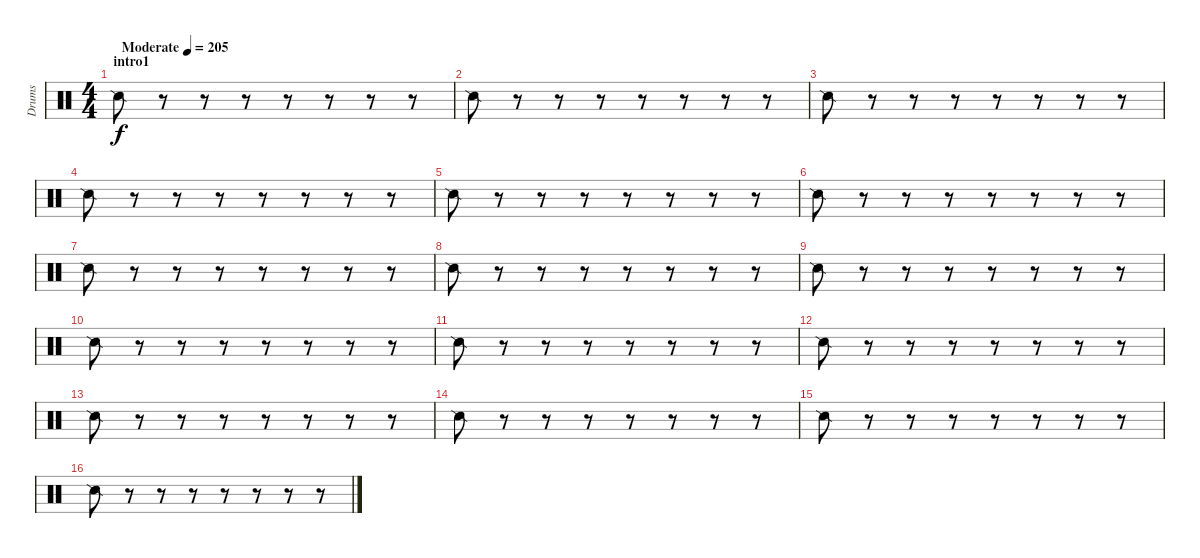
\track ("Drums" "Drums") {instrument percussion}
\staff {score}
\articulation defaults
\ts (4 4)
\section ("" "intro1")
\tempo (205 "Moderate")
\clef neutral
\ks c "Snare (side stick) 2".8{dy f}
r.8 r.8 r.8 r.8 r.8 r.8 r.8 |
"Snare (side stick) 2".8 r.8 r.8 r.8 r.8 r.8 r.8 r.8 |
"Snare (side stick) 2".8 r.8 r.8 r.8 r.8 r.8 r.8 r.8 |
"Snare (side stick) 2".8 r.8 r.8 r.8 r.8 r.8 r.8 r.8 |
"Snare (side stick) 2".8 r.8 r.8 r.8 r.8 r.8 r.8 r.8 |
"Snare (side stick) 2".8 r.8 r.8 r.8 r.8 r.8 r.8 r.8 |
"Snare (side stick) 2".8 r.8 r.8 r.8 r.8 r.8 r.8 r.8 |
"Snare (side stick) 2".8 r.8 r.8 r.8 r.8 r.8 r.8 r.8 |
"Snare (side stick) 2".8 r.8 r.8 r.8 r.8 r.8 r.8 r.8 |
"Snare (side stick) 2".8 r.8 r.8 r.8 r.8 r.8 r.8 r.8 |
"Snare (side stick) 2".8 r.8 r.8 r.8 r.8 r.8 r.8 r.8 |
"Snare (side stick) 2".8 r.8 r.8 r.8 r.8 r.8 r.8 r.8 |
"Snare (side stick) 2".8 r.8 r.8 r.8 r.8 r.8 r.8 r.8 |
"Snare (side stick) 2".8 r.8 r.8 r.8 r.8 r.8 r.8 r.8 |
"Snare (side stick) 2".8 r.8 r.8 r.8 r.8 r.8 r.8 r.8 |
"Snare (side stick) 2".8 r.8 r.8 r.8 r.8 r.8 r.8 r.8
